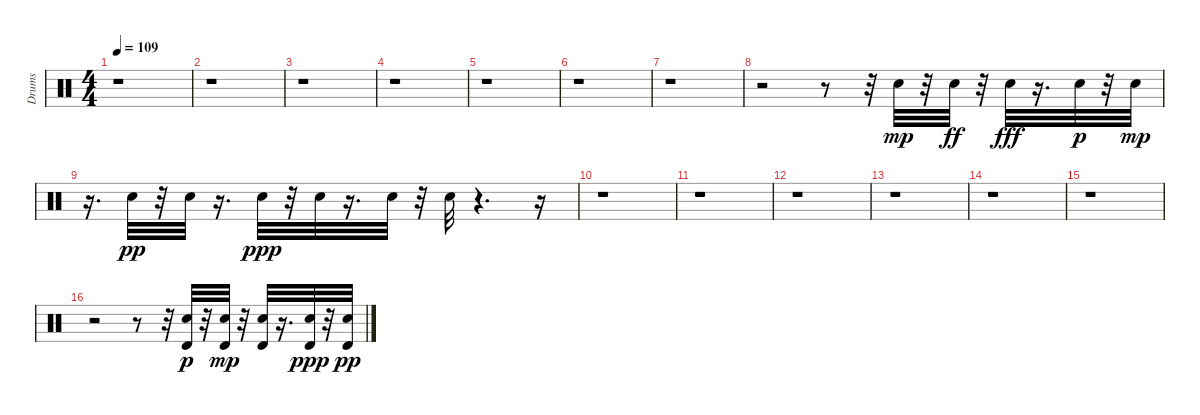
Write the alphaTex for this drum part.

\track ("Drums" "Drums") {instrument percussion}
\staff {score}
\articulation defaults
\ts (4 4)
\tempo 109
\clef neutral
\ks c
r.1{dy ppp} |
r.1 |
r.1 |
r.1 |
r.1 |
r.1 |
r.1 |
r.2 r.8 r.32 "Electric Snare (hit)".32{dy mp} r.32 "Electric Snare (hit)".32{dy ff} r.32 "Electric Snare (hit)".32{dy fff} r.16{d} "Electric Snare (hit)".32{dy p} r.32 "Electric Snare (hit)".32{dy mp} |
r.16{d} "Electric Snare (hit)".32{dy pp} r.32 "Electric Snare (hit)".32 r.16{d} "Electric Snare (hit)".32{dy ppp} r.32 "Electric Snare (hit)".32 r.16{d} "Electric Snare (hit)".32 r.32 "Electric Snare (hit)".32 r.4{d} r.16 |
r.1 |
r.1 |
r.1 |
r.1 |
r.1 |
r.1 |
r.2 r.8 r.32 ("Electric Snare (hit)" "Timbale high (hit)").32{dy p volume 16} r.32 ("Electric Snare (hit)" "Timbale high (hit)").32{dy mp} r.32 ("Electric Snare (hit)" "Timbale high (hit)").32 r.16{d} ("Electric Snare (hit)" "Timbale high (hit)").32{dy ppp} r.32 ("Electric Snare (hit)" "Timbale high (hit)").32{dy pp}
